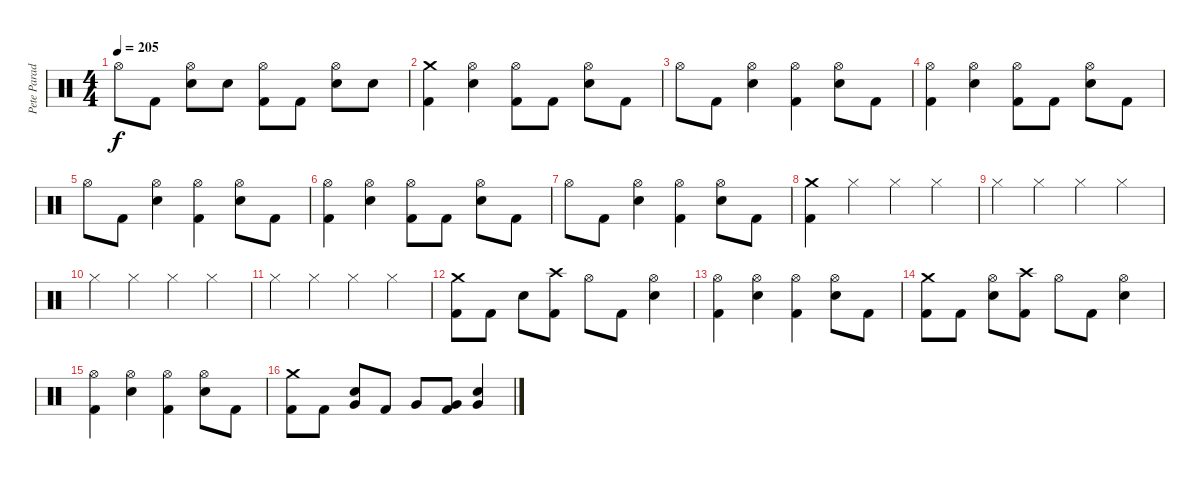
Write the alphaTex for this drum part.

\track ("Pete Parada - Drums" "Pete Parad") {instrument percussion}
\staff {score}
\articulation defaults
\ts (4 4)
\tempo 205
\clef neutral
\ks c "Hi-Hat (open)".8{dy f} "Kick (hit) 2".8
("Hi-Hat (open)" "Electric Snare (hit)").8 "Electric Snare (hit)".8 ("Hi-Hat (open)" "Kick (hit) 2").8 "Kick (hit) 2".8 ("Hi-Hat (open)" "Electric Snare (hit)").8 "Electric Snare (hit)".8 |
("Crash medium (hit)" "Kick (hit) 2").4 ("Hi-Hat (open)" "Electric Snare (hit)").4 ("Hi-Hat (open)" "Kick (hit) 2").8 "Kick (hit) 2".8 ("Hi-Hat (open)" "Electric Snare (hit)").8 "Kick (hit) 2".8 |
"Hi-Hat (open)".8 "Kick (hit) 2".8 ("Hi-Hat (open)" "Electric Snare (hit)").4 ("Hi-Hat (open)" "Kick (hit) 2").4 ("Hi-Hat (open)" "Electric Snare (hit)").8 "Kick (hit) 2".8 |
("Hi-Hat (open)" "Kick (hit) 2").4 ("Hi-Hat (open)" "Electric Snare (hit)").4 ("Hi-Hat (open)" "Kick (hit) 2").8 "Kick (hit) 2".8 ("Hi-Hat (open)" "Electric Snare (hit)").8 "Kick (hit) 2".8 |
"Hi-Hat (open)".8 "Kick (hit) 2".8 ("Hi-Hat (open)" "Electric Snare (hit)").4 ("Hi-Hat (open)" "Kick (hit) 2").4 ("Hi-Hat (open)" "Electric Snare (hit)").8 "Kick (hit) 2".8 |
("Hi-Hat (open)" "Kick (hit) 2").4 ("Hi-Hat (open)" "Electric Snare (hit)").4 ("Hi-Hat (open)" "Kick (hit) 2").8 "Kick (hit) 2".8 ("Hi-Hat (open)" "Electric Snare (hit)").8 "Kick (hit) 2".8 |
"Hi-Hat (open)".8 "Kick (hit) 2".8 ("Hi-Hat (open)" "Electric Snare (hit)").4 ("Hi-Hat (open)" "Kick (hit) 2").4 ("Hi-Hat (open)" "Electric Snare (hit)").8 "Kick (hit) 2".8 |
("Crash medium (hit)" "Kick (hit) 2").4 "Hi-Hat (closed)".4 "Hi-Hat (closed)".4 "Hi-Hat (closed)".4 |
"Hi-Hat (closed)".4 "Hi-Hat (closed)".4 "Hi-Hat (closed)".4 "Hi-Hat (closed)".4 |
"Hi-Hat (closed)".4 "Hi-Hat (closed)".4 "Hi-Hat (closed)".4 "Hi-Hat (closed)".4 |
"Hi-Hat (closed)".4 "Hi-Hat (closed)".4 "Hi-Hat (closed)".4 "Hi-Hat (closed)".4 |
("Crash medium (hit)" "Kick (hit) 2").8 "Kick (hit) 2".8 "Electric Snare (hit)".8 ("Crash high (hit)" "Kick (hit) 2").8 "Hi-Hat (open)".8 "Kick (hit) 2".8 ("Hi-Hat (open)" "Electric Snare (hit)").4 |
("Hi-Hat (open)" "Kick (hit) 2").4 ("Hi-Hat (open)" "Electric Snare (hit)").4 ("Hi-Hat (open)" "Kick (hit) 2").4 ("Hi-Hat (open)" "Electric Snare (hit)").8 "Kick (hit) 2".8 |
("Crash medium (hit)" "Kick (hit) 2").8 "Kick (hit) 2".8 ("Hi-Hat (open)" "Electric Snare (hit)").8 ("Crash high (hit)" "Kick (hit) 2").8 "Hi-Hat (open)".8 "Kick (hit) 2".8 ("Hi-Hat (open)" "Electric Snare (hit)").4 |
("Hi-Hat (open)" "Kick (hit) 2").4 ("Hi-Hat (open)" "Electric Snare (hit)").4 ("Hi-Hat (open)" "Kick (hit) 2").4 ("Hi-Hat (open)" "Electric Snare (hit)").8 "Kick (hit) 2".8 |
("Crash medium (hit)" "Kick (hit) 2").8 "Kick (hit) 2".8 ("Very Low Tom (hit)" "Electric Snare (hit)").8 "Kick (hit) 2".8 "Very Low Tom (hit)".8 ("Very Low Tom (hit)" "Kick (hit) 2").8 ("Very Low Tom (hit)" "Electric Snare (hit)").4
